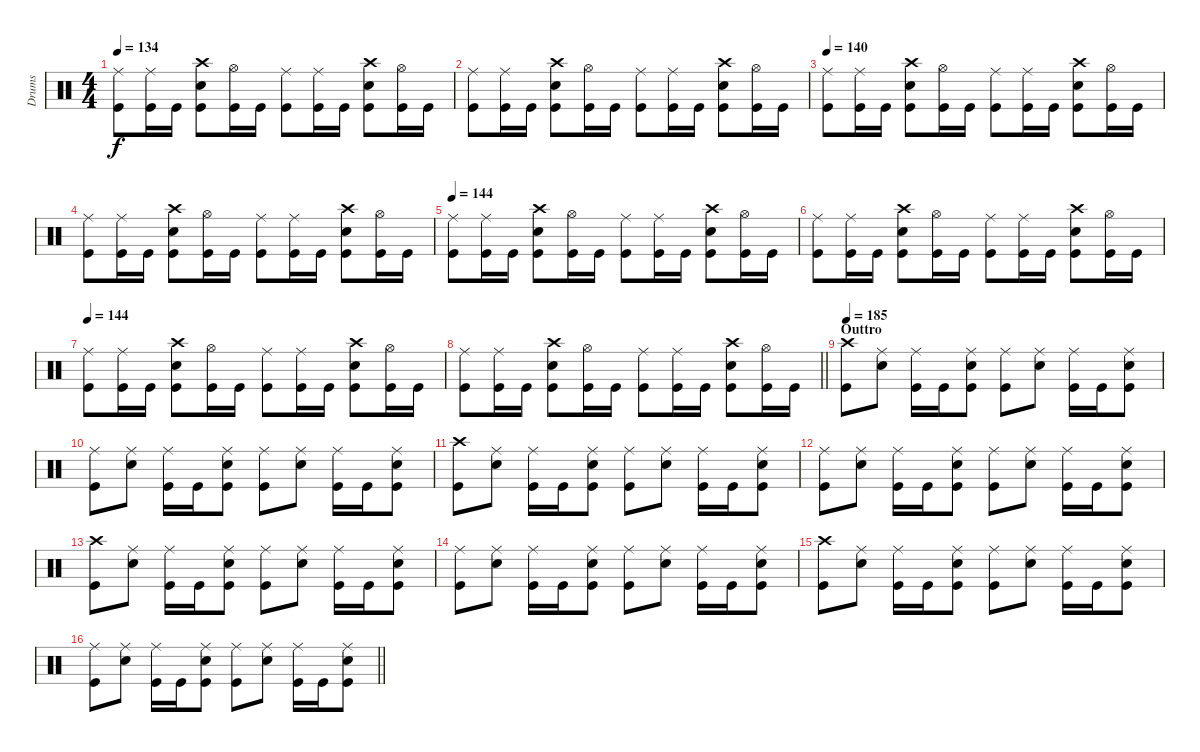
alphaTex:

\track ("Drums" "Drums") {instrument percussion}
\staff {score}
\articulation defaults
\ts (4 4)
\tempo 134
\clef neutral
\ks c
("Ride (middle)" "Kick (hit)").8{dy f} ("Ride (middle)" "Kick (hit)").16 "Kick (hit)".16 ("Crash high (hit)" "Kick (hit)" "Snare (hit) 2").8 ("Hi-Hat (open)" "Kick (hit)").16 "Kick (hit)".16 ("Ride (middle)" "Kick (hit)").8 ("Ride (middle)" "Kick (hit)").16 "Kick (hit)".16 ("Crash high (hit)" "Kick (hit)" "Snare (hit) 2").8 ("Hi-Hat (open)" "Kick (hit)").16 "Kick (hit)".16 |
("Ride (middle)" "Kick (hit)").8 ("Ride (middle)" "Kick (hit)").16 "Kick (hit)".16 ("Crash high (hit)" "Kick (hit)" "Snare (hit) 2").8 ("Hi-Hat (open)" "Kick (hit)").16 "Kick (hit)".16 ("Ride (middle)" "Kick (hit)").8 ("Ride (middle)" "Kick (hit)").16 "Kick (hit)".16 ("Crash high (hit)" "Kick (hit)" "Snare (hit) 2").8 ("Hi-Hat (open)" "Kick (hit)").16 "Kick (hit)".16 |
\tempo 140
("Ride (middle)" "Kick (hit)").8 ("Ride (middle)" "Kick (hit)").16 "Kick (hit)".16 ("Crash high (hit)" "Kick (hit)" "Snare (hit) 2").8 ("Hi-Hat (open)" "Kick (hit)").16 "Kick (hit)".16 ("Ride (middle)" "Kick (hit)").8 ("Ride (middle)" "Kick (hit)").16 "Kick (hit)".16 ("Crash high (hit)" "Kick (hit)" "Snare (hit) 2").8 ("Hi-Hat (open)" "Kick (hit)").16 "Kick (hit)".16 |
("Ride (middle)" "Kick (hit)").8 ("Ride (middle)" "Kick (hit)").16 "Kick (hit)".16 ("Crash high (hit)" "Kick (hit)" "Snare (hit) 2").8 ("Hi-Hat (open)" "Kick (hit)").16 "Kick (hit)".16 ("Ride (middle)" "Kick (hit)").8 ("Ride (middle)" "Kick (hit)").16 "Kick (hit)".16 ("Crash high (hit)" "Kick (hit)" "Snare (hit) 2").8 ("Hi-Hat (open)" "Kick (hit)").16 "Kick (hit)".16 |
\tempo 144
("Ride (middle)" "Kick (hit)").8 ("Ride (middle)" "Kick (hit)").16 "Kick (hit)".16 ("Crash high (hit)" "Kick (hit)" "Snare (hit) 2").8 ("Hi-Hat (open)" "Kick (hit)").16 "Kick (hit)".16 ("Ride (middle)" "Kick (hit)").8 ("Ride (middle)" "Kick (hit)").16 "Kick (hit)".16 ("Crash high (hit)" "Kick (hit)" "Snare (hit) 2").8 ("Hi-Hat (open)" "Kick (hit)").16 "Kick (hit)".16 |
("Ride (middle)" "Kick (hit)").8 ("Ride (middle)" "Kick (hit)").16 "Kick (hit)".16 ("Crash high (hit)" "Kick (hit)" "Snare (hit) 2").8 ("Hi-Hat (open)" "Kick (hit)").16 "Kick (hit)".16 ("Ride (middle)" "Kick (hit)").8 ("Ride (middle)" "Kick (hit)").16 "Kick (hit)".16 ("Crash high (hit)" "Kick (hit)" "Snare (hit) 2").8 ("Hi-Hat (open)" "Kick (hit)").16 "Kick (hit)".16 |
\tempo 144
("Ride (middle)" "Kick (hit)").8 ("Ride (middle)" "Kick (hit)").16 "Kick (hit)".16 ("Crash high (hit)" "Kick (hit)" "Snare (hit) 2").8 ("Hi-Hat (open)" "Kick (hit)").16 "Kick (hit)".16 ("Ride (middle)" "Kick (hit)").8 ("Ride (middle)" "Kick (hit)").16 "Kick (hit)".16 ("Crash high (hit)" "Kick (hit)" "Snare (hit) 2").8 ("Hi-Hat (open)" "Kick (hit)").16 "Kick (hit)".16 |
\barLineRight lightlight
("Ride (middle)" "Kick (hit)").8 ("Ride (middle)" "Kick (hit)").16 "Kick (hit)".16 ("Crash high (hit)" "Kick (hit)" "Snare (hit) 2").8 ("Hi-Hat (open)" "Kick (hit)").16 "Kick (hit)".16 ("Ride (middle)" "Kick (hit)").8 ("Ride (middle)" "Kick (hit)").16 "Kick (hit)".16 ("Crash high (hit)" "Kick (hit)" "Snare (hit) 2").8 ("Hi-Hat (open)" "Kick (hit)").16 "Kick (hit)".16 |
\section ("" "Outtro")
\tempo 185
("Kick (hit)" "Crash high (hit)").8 ("Snare (hit) 2" "Ride (middle)").8 ("Kick (hit)" "Ride (middle)").16 "Kick (hit)".16 ("Kick (hit)" "Ride (middle)" "Snare (hit) 2").8 ("Kick (hit)" "Ride (middle)").8 ("Snare (hit) 2" "Ride (middle)").8 ("Kick (hit)" "Ride (middle)").16 "Kick (hit)".16 ("Kick (hit)" "Ride (middle)" "Snare (hit) 2").8 |
("Kick (hit)" "Ride (middle)").8 ("Snare (hit) 2" "Ride (middle)").8 ("Kick (hit)" "Ride (middle)").16 "Kick (hit)".16 ("Kick (hit)" "Ride (middle)" "Snare (hit) 2").8 ("Kick (hit)" "Ride (middle)").8 ("Snare (hit) 2" "Ride (middle)").8 ("Kick (hit)" "Ride (middle)").16 "Kick (hit)".16 ("Kick (hit)" "Ride (middle)" "Snare (hit) 2").8 |
("Kick (hit)" "Crash high (hit)").8 ("Snare (hit) 2" "Ride (middle)").8 ("Kick (hit)" "Ride (middle)").16 "Kick (hit)".16 ("Kick (hit)" "Ride (middle)" "Snare (hit) 2").8 ("Kick (hit)" "Ride (middle)").8 ("Snare (hit) 2" "Ride (middle)").8 ("Kick (hit)" "Ride (middle)").16 "Kick (hit)".16 ("Kick (hit)" "Ride (middle)" "Snare (hit) 2").8 |
("Kick (hit)" "Ride (middle)").8 ("Snare (hit) 2" "Ride (middle)").8 ("Kick (hit)" "Ride (middle)").16 "Kick (hit)".16 ("Kick (hit)" "Ride (middle)" "Snare (hit) 2").8 ("Kick (hit)" "Ride (middle)").8 ("Snare (hit) 2" "Ride (middle)").8 ("Kick (hit)" "Ride (middle)").16 "Kick (hit)".16 ("Kick (hit)" "Ride (middle)" "Snare (hit) 2").8 |
("Kick (hit)" "Crash high (hit)").8 ("Snare (hit) 2" "Ride (middle)").8 ("Kick (hit)" "Ride (middle)").16 "Kick (hit)".16 ("Kick (hit)" "Ride (middle)" "Snare (hit) 2").8 ("Kick (hit)" "Ride (middle)").8 ("Snare (hit) 2" "Ride (middle)").8 ("Kick (hit)" "Ride (middle)").16 "Kick (hit)".16 ("Kick (hit)" "Ride (middle)" "Snare (hit) 2").8 |
("Kick (hit)" "Ride (middle)").8 ("Snare (hit) 2" "Ride (middle)").8 ("Kick (hit)" "Ride (middle)").16 "Kick (hit)".16 ("Kick (hit)" "Ride (middle)" "Snare (hit) 2").8 ("Kick (hit)" "Ride (middle)").8 ("Snare (hit) 2" "Ride (middle)").8 ("Kick (hit)" "Ride (middle)").16 "Kick (hit)".16 ("Kick (hit)" "Ride (middle)" "Snare (hit) 2").8 |
("Kick (hit)" "Crash high (hit)").8 ("Snare (hit) 2" "Ride (middle)").8 ("Kick (hit)" "Ride (middle)").16 "Kick (hit)".16 ("Kick (hit)" "Ride (middle)" "Snare (hit) 2").8 ("Kick (hit)" "Ride (middle)").8 ("Snare (hit) 2" "Ride (middle)").8 ("Kick (hit)" "Ride (middle)").16 "Kick (hit)".16 ("Kick (hit)" "Ride (middle)" "Snare (hit) 2").8 |
\barLineRight lightlight
("Kick (hit)" "Ride (middle)").8 ("Snare (hit) 2" "Ride (middle)").8 ("Kick (hit)" "Ride (middle)").16 "Kick (hit)".16 ("Kick (hit)" "Ride (middle)" "Snare (hit) 2").8 ("Kick (hit)" "Ride (middle)").8 ("Snare (hit) 2" "Ride (middle)").8 ("Kick (hit)" "Ride (middle)").16 "Kick (hit)".16 ("Kick (hit)" "Ride (middle)" "Snare (hit) 2").8
